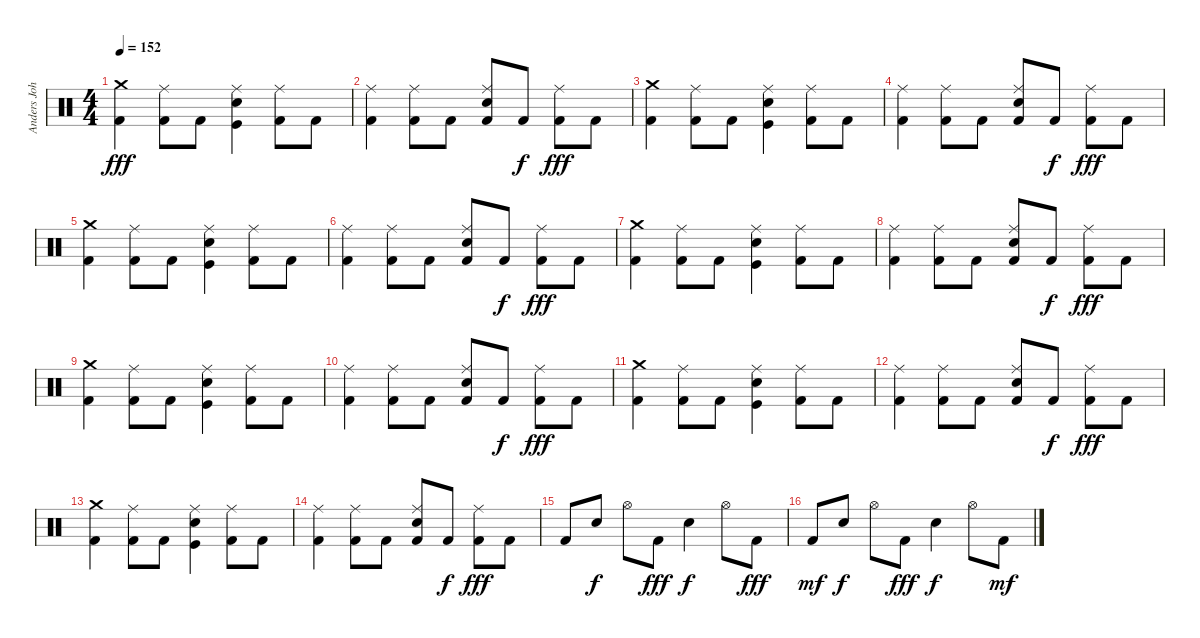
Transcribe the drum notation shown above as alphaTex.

\track ("Anders Johansson (Drums)" "Anders Joh") {instrument percussion}
\staff {score}
\articulation defaults
\ts (4 4)
\tempo 152
\clef neutral
\ks c
("Kick (hit) 2" "Crash medium (hit)").4{dy fff} ("Kick (hit) 2" "Ride (middle)").8 "Kick (hit) 2".8 ("Kick (hit)" "Electric Snare (hit)" "Ride (middle)").4 ("Kick (hit) 2" "Ride (middle)").8 "Kick (hit) 2".8 |
("Kick (hit) 2" "Ride (middle)").4 ("Kick (hit) 2" "Ride (middle)").8 "Kick (hit) 2".8 ("Kick (hit) 2" "Electric Snare (hit)" "Ride (middle)").8 "Kick (hit) 2".8{dy f} ("Kick (hit) 2" "Ride (middle)").8{dy fff} "Kick (hit) 2".8 |
("Kick (hit) 2" "Crash medium (hit)").4 ("Kick (hit) 2" "Ride (middle)").8 "Kick (hit) 2".8 ("Kick (hit)" "Electric Snare (hit)" "Ride (middle)").4 ("Kick (hit) 2" "Ride (middle)").8 "Kick (hit) 2".8 |
("Kick (hit) 2" "Ride (middle)").4 ("Kick (hit) 2" "Ride (middle)").8 "Kick (hit) 2".8 ("Kick (hit) 2" "Electric Snare (hit)" "Ride (middle)").8 "Kick (hit) 2".8{dy f} ("Kick (hit) 2" "Ride (middle)").8{dy fff} "Kick (hit) 2".8 |
("Kick (hit) 2" "Crash medium (hit)").4 ("Kick (hit) 2" "Ride (middle)").8 "Kick (hit) 2".8 ("Kick (hit)" "Electric Snare (hit)" "Ride (middle)").4 ("Kick (hit) 2" "Ride (middle)").8 "Kick (hit) 2".8 |
("Kick (hit) 2" "Ride (middle)").4 ("Kick (hit) 2" "Ride (middle)").8 "Kick (hit) 2".8 ("Kick (hit) 2" "Electric Snare (hit)" "Ride (middle)").8 "Kick (hit) 2".8{dy f} ("Kick (hit) 2" "Ride (middle)").8{dy fff} "Kick (hit) 2".8 |
("Kick (hit) 2" "Crash medium (hit)").4 ("Kick (hit) 2" "Ride (middle)").8 "Kick (hit) 2".8 ("Kick (hit)" "Electric Snare (hit)" "Ride (middle)").4 ("Kick (hit) 2" "Ride (middle)").8 "Kick (hit) 2".8 |
("Kick (hit) 2" "Ride (middle)").4 ("Kick (hit) 2" "Ride (middle)").8 "Kick (hit) 2".8 ("Kick (hit) 2" "Electric Snare (hit)" "Ride (middle)").8 "Kick (hit) 2".8{dy f} ("Kick (hit) 2" "Ride (middle)").8{dy fff} "Kick (hit) 2".8 |
("Kick (hit) 2" "Crash medium (hit)").4 ("Kick (hit) 2" "Ride (middle)").8 "Kick (hit) 2".8 ("Kick (hit)" "Electric Snare (hit)" "Ride (middle)").4 ("Kick (hit) 2" "Ride (middle)").8 "Kick (hit) 2".8 |
("Kick (hit) 2" "Ride (middle)").4 ("Kick (hit) 2" "Ride (middle)").8 "Kick (hit) 2".8 ("Kick (hit) 2" "Electric Snare (hit)" "Ride (middle)").8 "Kick (hit) 2".8{dy f} ("Kick (hit) 2" "Ride (middle)").8{dy fff} "Kick (hit) 2".8 |
("Kick (hit) 2" "Crash medium (hit)").4 ("Kick (hit) 2" "Ride (middle)").8 "Kick (hit) 2".8 ("Kick (hit)" "Electric Snare (hit)" "Ride (middle)").4 ("Kick (hit) 2" "Ride (middle)").8 "Kick (hit) 2".8 |
("Kick (hit) 2" "Ride (middle)").4 ("Kick (hit) 2" "Ride (middle)").8 "Kick (hit) 2".8 ("Kick (hit) 2" "Electric Snare (hit)" "Ride (middle)").8 "Kick (hit) 2".8{dy f} ("Kick (hit) 2" "Ride (middle)").8{dy fff} "Kick (hit) 2".8 |
("Kick (hit) 2" "Crash medium (hit)").4 ("Kick (hit) 2" "Ride (middle)").8 "Kick (hit) 2".8 ("Kick (hit)" "Electric Snare (hit)" "Ride (middle)").4 ("Kick (hit) 2" "Ride (middle)").8 "Kick (hit) 2".8 |
("Kick (hit) 2" "Ride (middle)").4 ("Kick (hit) 2" "Ride (middle)").8 "Kick (hit) 2".8 ("Kick (hit) 2" "Electric Snare (hit)" "Ride (middle)").8 "Kick (hit) 2".8{dy f} ("Kick (hit) 2" "Ride (middle)").8{dy fff} "Kick (hit) 2".8 |
"Kick (hit) 2".8 "Electric Snare (hit)".8{dy f} "Hi-Hat (open)".8 "Kick (hit) 2".8{dy fff} "Electric Snare (hit)".4{dy f} "Hi-Hat (open)".8 "Kick (hit) 2".8{dy fff} |
"Kick (hit) 2".8{dy mf} "Electric Snare (hit)".8{dy f} "Hi-Hat (open)".8 "Kick (hit) 2".8{dy fff} "Electric Snare (hit)".4{dy f} "Hi-Hat (open)".8 "Kick (hit) 2".8{dy mf}
